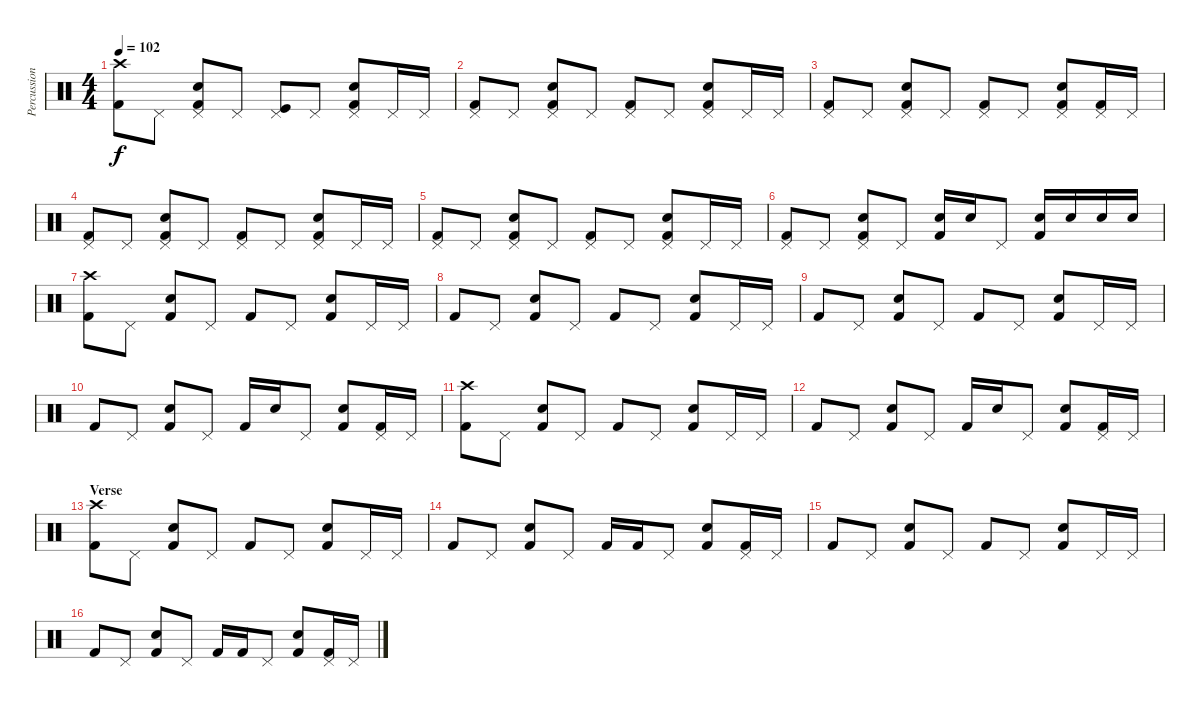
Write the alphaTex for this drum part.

\track ("Percussion" "Percussion") {instrument percussion}
\staff {score}
\articulation defaults
\ts (4 4)
\tempo 102
\clef neutral
\ks c
("Crash high (hit)" "Kick (hit) 2").8{dy f} "Pedal Hi-Hat (hit)".8 ("Pedal Hi-Hat (hit)" "Snare (hit) 2" "Kick (hit) 2").8 "Pedal Hi-Hat (hit)".8 ("Pedal Hi-Hat (hit)" "Kick (hit)").8 "Pedal Hi-Hat (hit)".8 ("Pedal Hi-Hat (hit)" "Snare (hit) 2" "Kick (hit) 2").8 "Pedal Hi-Hat (hit)".16 "Pedal Hi-Hat (hit)".16 |
("Pedal Hi-Hat (hit)" "Kick (hit) 2").8 "Pedal Hi-Hat (hit)".8 ("Pedal Hi-Hat (hit)" "Snare (hit) 2" "Kick (hit) 2").8 "Pedal Hi-Hat (hit)".8 ("Pedal Hi-Hat (hit)" "Kick (hit) 2").8 "Pedal Hi-Hat (hit)".8 ("Pedal Hi-Hat (hit)" "Snare (hit) 2" "Kick (hit) 2").8 "Pedal Hi-Hat (hit)".16 "Pedal Hi-Hat (hit)".16 |
("Pedal Hi-Hat (hit)" "Kick (hit) 2").8 "Pedal Hi-Hat (hit)".8 ("Pedal Hi-Hat (hit)" "Snare (hit) 2" "Kick (hit) 2").8 "Pedal Hi-Hat (hit)".8 ("Pedal Hi-Hat (hit)" "Kick (hit) 2").8 "Pedal Hi-Hat (hit)".8 ("Pedal Hi-Hat (hit)" "Snare (hit) 2" "Kick (hit) 2").8 ("Pedal Hi-Hat (hit)" "Kick (hit) 2").16 "Pedal Hi-Hat (hit)".16 |
("Pedal Hi-Hat (hit)" "Kick (hit) 2").8 "Pedal Hi-Hat (hit)".8 ("Pedal Hi-Hat (hit)" "Snare (hit) 2" "Kick (hit) 2").8 "Pedal Hi-Hat (hit)".8 ("Pedal Hi-Hat (hit)" "Kick (hit) 2").8 "Pedal Hi-Hat (hit)".8 ("Pedal Hi-Hat (hit)" "Snare (hit) 2" "Kick (hit) 2").8 "Pedal Hi-Hat (hit)".16 "Pedal Hi-Hat (hit)".16 |
("Pedal Hi-Hat (hit)" "Kick (hit) 2").8 "Pedal Hi-Hat (hit)".8 ("Pedal Hi-Hat (hit)" "Snare (hit) 2" "Kick (hit) 2").8 "Pedal Hi-Hat (hit)".8 ("Pedal Hi-Hat (hit)" "Kick (hit) 2").8 "Pedal Hi-Hat (hit)".8 ("Pedal Hi-Hat (hit)" "Snare (hit) 2" "Kick (hit) 2").8 "Pedal Hi-Hat (hit)".16 "Pedal Hi-Hat (hit)".16 |
("Pedal Hi-Hat (hit)" "Kick (hit) 2").8 "Pedal Hi-Hat (hit)".8 ("Pedal Hi-Hat (hit)" "Snare (hit) 2" "Kick (hit) 2").8 "Pedal Hi-Hat (hit)".8 ("Snare (hit) 2" "Kick (hit) 2").16 "Snare (hit) 2".16 "Pedal Hi-Hat (hit)".8 ("Snare (hit) 2" "Kick (hit) 2").16 "Snare (hit) 2".16 "Snare (hit) 2".16 "Snare (hit) 2".16 |
("Crash high (hit)" "Kick (hit) 2").8 "Pedal Hi-Hat (hit)".8 ("Snare (hit) 2" "Kick (hit) 2").8 "Pedal Hi-Hat (hit)".8 "Kick (hit) 2".8 "Pedal Hi-Hat (hit)".8 ("Snare (hit) 2" "Kick (hit) 2").8 "Pedal Hi-Hat (hit)".16 "Pedal Hi-Hat (hit)".16 |
"Kick (hit) 2".8 "Pedal Hi-Hat (hit)".8 ("Snare (hit) 2" "Kick (hit) 2").8 "Pedal Hi-Hat (hit)".8 "Kick (hit) 2".8 "Pedal Hi-Hat (hit)".8 ("Snare (hit) 2" "Kick (hit) 2").8 "Pedal Hi-Hat (hit)".16 "Pedal Hi-Hat (hit)".16 |
"Kick (hit) 2".8 "Pedal Hi-Hat (hit)".8 ("Snare (hit) 2" "Kick (hit) 2").8 "Pedal Hi-Hat (hit)".8 "Kick (hit) 2".8 "Pedal Hi-Hat (hit)".8 ("Snare (hit) 2" "Kick (hit) 2").8 "Pedal Hi-Hat (hit)".16 "Pedal Hi-Hat (hit)".16 |
"Kick (hit) 2".8 "Pedal Hi-Hat (hit)".8 ("Snare (hit) 2" "Kick (hit) 2").8 "Pedal Hi-Hat (hit)".8 "Kick (hit) 2".16 "Snare (hit) 2".16 "Pedal Hi-Hat (hit)".8 ("Snare (hit) 2" "Kick (hit) 2").8 ("Pedal Hi-Hat (hit)" "Kick (hit) 2").16 "Pedal Hi-Hat (hit)".16 |
("Crash high (hit)" "Kick (hit) 2").8 "Pedal Hi-Hat (hit)".8 ("Snare (hit) 2" "Kick (hit) 2").8 "Pedal Hi-Hat (hit)".8 "Kick (hit) 2".8 "Pedal Hi-Hat (hit)".8 ("Snare (hit) 2" "Kick (hit) 2").8 "Pedal Hi-Hat (hit)".16 "Pedal Hi-Hat (hit)".16 |
"Kick (hit) 2".8 "Pedal Hi-Hat (hit)".8 ("Snare (hit) 2" "Kick (hit) 2").8 "Pedal Hi-Hat (hit)".8 "Kick (hit) 2".16 "Snare (hit) 2".16 "Pedal Hi-Hat (hit)".8 ("Snare (hit) 2" "Kick (hit) 2").8 ("Pedal Hi-Hat (hit)" "Kick (hit) 2").16 "Pedal Hi-Hat (hit)".16 |
\section ("" "Verse")
("Crash high (hit)" "Kick (hit) 2").8 "Pedal Hi-Hat (hit)".8 ("Snare (hit) 2" "Kick (hit) 2").8 "Pedal Hi-Hat (hit)".8 "Kick (hit) 2".8 "Pedal Hi-Hat (hit)".8 ("Snare (hit) 2" "Kick (hit) 2").8 "Pedal Hi-Hat (hit)".16 "Pedal Hi-Hat (hit)".16 |
"Kick (hit) 2".8 "Pedal Hi-Hat (hit)".8 ("Snare (hit) 2" "Kick (hit) 2").8 "Pedal Hi-Hat (hit)".8 "Kick (hit) 2".16 "Kick (hit) 2".16 "Pedal Hi-Hat (hit)".8 ("Snare (hit) 2" "Kick (hit) 2").8 ("Pedal Hi-Hat (hit)" "Kick (hit) 2").16 "Pedal Hi-Hat (hit)".16 |
"Kick (hit) 2".8 "Pedal Hi-Hat (hit)".8 ("Snare (hit) 2" "Kick (hit) 2").8 "Pedal Hi-Hat (hit)".8 "Kick (hit) 2".8 "Pedal Hi-Hat (hit)".8 ("Snare (hit) 2" "Kick (hit) 2").8 "Pedal Hi-Hat (hit)".16 "Pedal Hi-Hat (hit)".16 |
"Kick (hit) 2".8 "Pedal Hi-Hat (hit)".8 ("Snare (hit) 2" "Kick (hit) 2").8 "Pedal Hi-Hat (hit)".8 "Kick (hit) 2".16 "Kick (hit) 2".16 "Pedal Hi-Hat (hit)".8 ("Snare (hit) 2" "Kick (hit) 2").8 ("Pedal Hi-Hat (hit)" "Kick (hit) 2").16 "Pedal Hi-Hat (hit)".16
